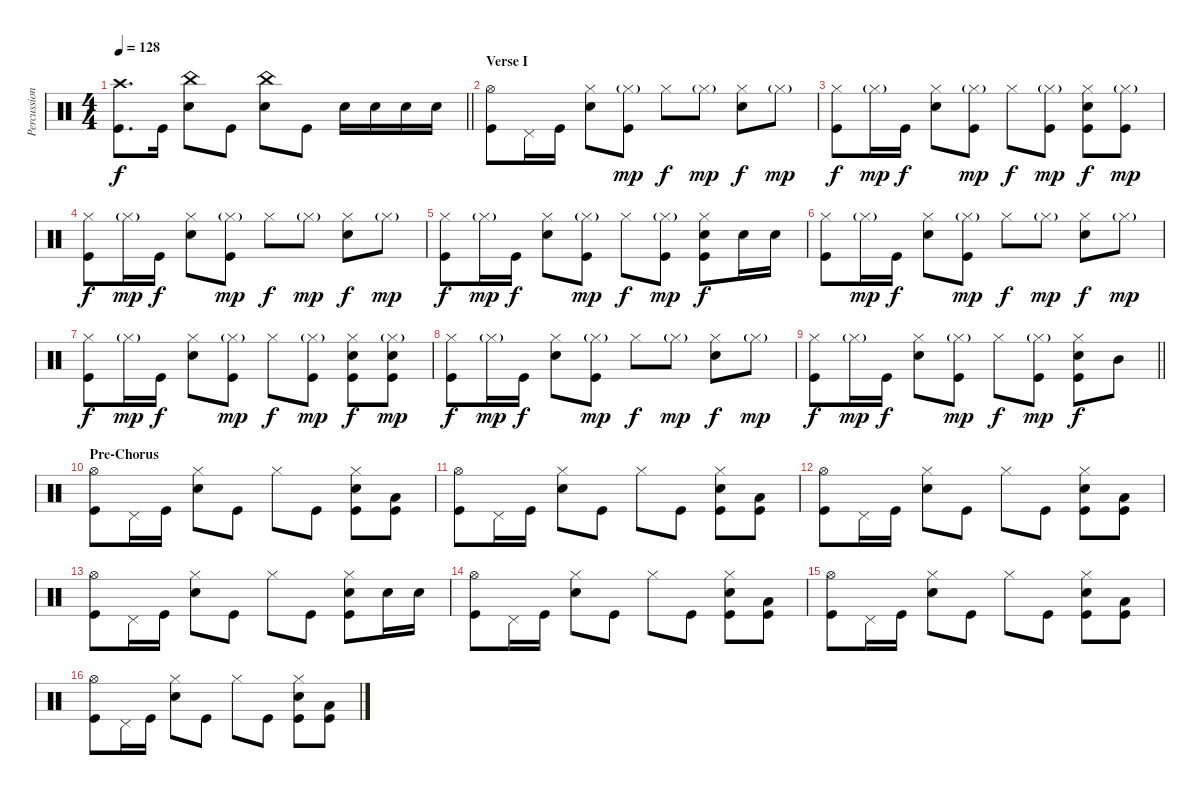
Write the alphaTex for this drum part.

\track ("Percussion" "Percussion") {instrument percussion}
\staff {score}
\articulation defaults
\ts (4 4)
\tempo 128
\clef neutral
\barLineRight lightlight
\ks c
("Crash high (hit)" "Kick (hit)").8{d dy f} "Kick (hit)".16 ("China (hit)" "Electric Snare (hit)").8 "Kick (hit)".8 ("China (hit)" "Electric Snare (hit)").8 "Kick (hit)".8 "Electric Snare (hit)".16 "Electric Snare (hit)".16 "Electric Snare (hit)".16 "Electric Snare (hit)".16 |
\section ("" "Verse I")
("Hi-Hat (open)" "Kick (hit)").8 "Pedal Hi-Hat (hit)".16 "Kick (hit)".16 ("Hi-Hat (closed)" "Electric Snare (hit)").8 ("Hi-Hat (closed)"{g} "Kick (hit)").8{dy mp} "Hi-Hat (closed)".8{dy f} "Hi-Hat (closed)"{g}.8{dy mp} ("Hi-Hat (closed)" "Electric Snare (hit)").8{dy f} "Hi-Hat (closed)"{g}.8{dy mp} |
("Hi-Hat (closed)" "Kick (hit)").8{dy f} "Hi-Hat (closed)"{g}.16{dy mp} "Kick (hit)".16{dy f} ("Hi-Hat (closed)" "Electric Snare (hit)").8 ("Hi-Hat (closed)"{g} "Kick (hit)").8{dy mp} "Hi-Hat (closed)".8{dy f} ("Hi-Hat (closed)"{g} "Kick (hit)").8{dy mp} ("Hi-Hat (closed)" "Electric Snare (hit)" "Kick (hit)").8{dy f} ("Hi-Hat (closed)"{g} "Kick (hit)").8{dy mp} |
("Hi-Hat (closed)" "Kick (hit)").8{dy f} "Hi-Hat (closed)"{g}.16{dy mp} "Kick (hit)".16{dy f} ("Hi-Hat (closed)" "Electric Snare (hit)").8 ("Hi-Hat (closed)"{g} "Kick (hit)").8{dy mp} "Hi-Hat (closed)".8{dy f} "Hi-Hat (closed)"{g}.8{dy mp} ("Hi-Hat (closed)" "Electric Snare (hit)").8{dy f} "Hi-Hat (closed)"{g}.8{dy mp} |
("Hi-Hat (closed)" "Kick (hit)").8{dy f} "Hi-Hat (closed)"{g}.16{dy mp} "Kick (hit)".16{dy f} ("Hi-Hat (closed)" "Electric Snare (hit)").8 ("Hi-Hat (closed)"{g} "Kick (hit)").8{dy mp} "Hi-Hat (closed)".8{dy f} ("Hi-Hat (closed)"{g} "Kick (hit)").8{dy mp} ("Hi-Hat (closed)" "Electric Snare (hit)" "Kick (hit)").8{dy f} "Electric Snare (hit)".16 "Electric Snare (hit)".16 |
("Hi-Hat (closed)" "Kick (hit)").8 "Hi-Hat (closed)"{g}.16{dy mp} "Kick (hit)".16{dy f} ("Hi-Hat (closed)" "Electric Snare (hit)").8 ("Hi-Hat (closed)"{g} "Kick (hit)").8{dy mp} "Hi-Hat (closed)".8{dy f} "Hi-Hat (closed)"{g}.8{dy mp} ("Hi-Hat (closed)" "Electric Snare (hit)").8{dy f} "Hi-Hat (closed)"{g}.8{dy mp} |
("Hi-Hat (closed)" "Kick (hit)").8{dy f} "Hi-Hat (closed)"{g}.16{dy mp} "Kick (hit)".16{dy f} ("Hi-Hat (closed)" "Electric Snare (hit)").8 ("Hi-Hat (closed)"{g} "Kick (hit)").8{dy mp} "Hi-Hat (closed)".8{dy f} ("Hi-Hat (closed)"{g} "Kick (hit)").8{dy mp} ("Hi-Hat (closed)" "Electric Snare (hit)" "Kick (hit)").8{dy f} ("Hi-Hat (closed)"{g} "Electric Snare (hit)" "Kick (hit)").8{dy mp} |
("Hi-Hat (closed)" "Kick (hit)").8{dy f} "Hi-Hat (closed)"{g}.16{dy mp} "Kick (hit)".16{dy f} ("Hi-Hat (closed)" "Electric Snare (hit)").8 ("Hi-Hat (closed)"{g} "Kick (hit)").8{dy mp} "Hi-Hat (closed)".8{dy f} "Hi-Hat (closed)"{g}.8{dy mp} ("Hi-Hat (closed)" "Electric Snare (hit)").8{dy f} "Hi-Hat (closed)"{g}.8{dy mp} |
\barLineRight lightlight
("Hi-Hat (closed)" "Kick (hit)").8{dy f} "Hi-Hat (closed)"{g}.16{dy mp} "Kick (hit)".16{dy f} ("Hi-Hat (closed)" "Electric Snare (hit)").8 ("Hi-Hat (closed)"{g} "Kick (hit)").8{dy mp} "Hi-Hat (closed)".8{dy f} ("Hi-Hat (closed)"{g} "Kick (hit)").8{dy mp} ("Hi-Hat (closed)" "Electric Snare (hit)" "Kick (hit)").8{dy f} "Mid Tom (hit)".8 |
\section ("" "Pre-Chorus")
("Hi-Hat (open)" "Kick (hit)").8 "Pedal Hi-Hat (hit)".16 "Kick (hit)".16 ("Hi-Hat (closed)" "Electric Snare (hit)").8 "Kick (hit)".8 "Hi-Hat (closed)".8 "Kick (hit)".8 ("Hi-Hat (closed)" "Electric Snare (hit)" "Kick (hit)").8 ("Low Tom (hit)" "Kick (hit)").8 |
("Hi-Hat (open)" "Kick (hit)").8 "Pedal Hi-Hat (hit)".16 "Kick (hit)".16 ("Hi-Hat (closed)" "Electric Snare (hit)").8 "Kick (hit)".8 "Hi-Hat (closed)".8 "Kick (hit)".8 ("Hi-Hat (closed)" "Electric Snare (hit)" "Kick (hit)").8 ("Low Tom (hit)" "Kick (hit)").8 |
("Hi-Hat (open)" "Kick (hit)").8 "Pedal Hi-Hat (hit)".16 "Kick (hit)".16 ("Hi-Hat (closed)" "Electric Snare (hit)").8 "Kick (hit)".8 "Hi-Hat (closed)".8 "Kick (hit)".8 ("Hi-Hat (closed)" "Electric Snare (hit)" "Kick (hit)").8 ("Low Tom (hit)" "Kick (hit)").8 |
("Hi-Hat (open)" "Kick (hit)").8 "Pedal Hi-Hat (hit)".16 "Kick (hit)".16 ("Hi-Hat (closed)" "Electric Snare (hit)").8 "Kick (hit)".8 "Hi-Hat (closed)".8 "Kick (hit)".8 ("Hi-Hat (closed)" "Electric Snare (hit)" "Kick (hit)").8 "Electric Snare (hit)".16 "Electric Snare (hit)".16 |
("Hi-Hat (open)" "Kick (hit)").8 "Pedal Hi-Hat (hit)".16 "Kick (hit)".16 ("Hi-Hat (closed)" "Electric Snare (hit)").8 "Kick (hit)".8 "Hi-Hat (closed)".8 "Kick (hit)".8 ("Hi-Hat (closed)" "Electric Snare (hit)" "Kick (hit)").8 ("Low Tom (hit)" "Kick (hit)").8 |
("Hi-Hat (open)" "Kick (hit)").8 "Pedal Hi-Hat (hit)".16 "Kick (hit)".16 ("Hi-Hat (closed)" "Electric Snare (hit)").8 "Kick (hit)".8 "Hi-Hat (closed)".8 "Kick (hit)".8 ("Hi-Hat (closed)" "Electric Snare (hit)" "Kick (hit)").8 ("Low Tom (hit)" "Kick (hit)").8 |
("Hi-Hat (open)" "Kick (hit)").8 "Pedal Hi-Hat (hit)".16 "Kick (hit)".16 ("Hi-Hat (closed)" "Electric Snare (hit)").8 "Kick (hit)".8 "Hi-Hat (closed)".8 "Kick (hit)".8 ("Hi-Hat (closed)" "Electric Snare (hit)" "Kick (hit)").8 ("Low Tom (hit)" "Kick (hit)").8
